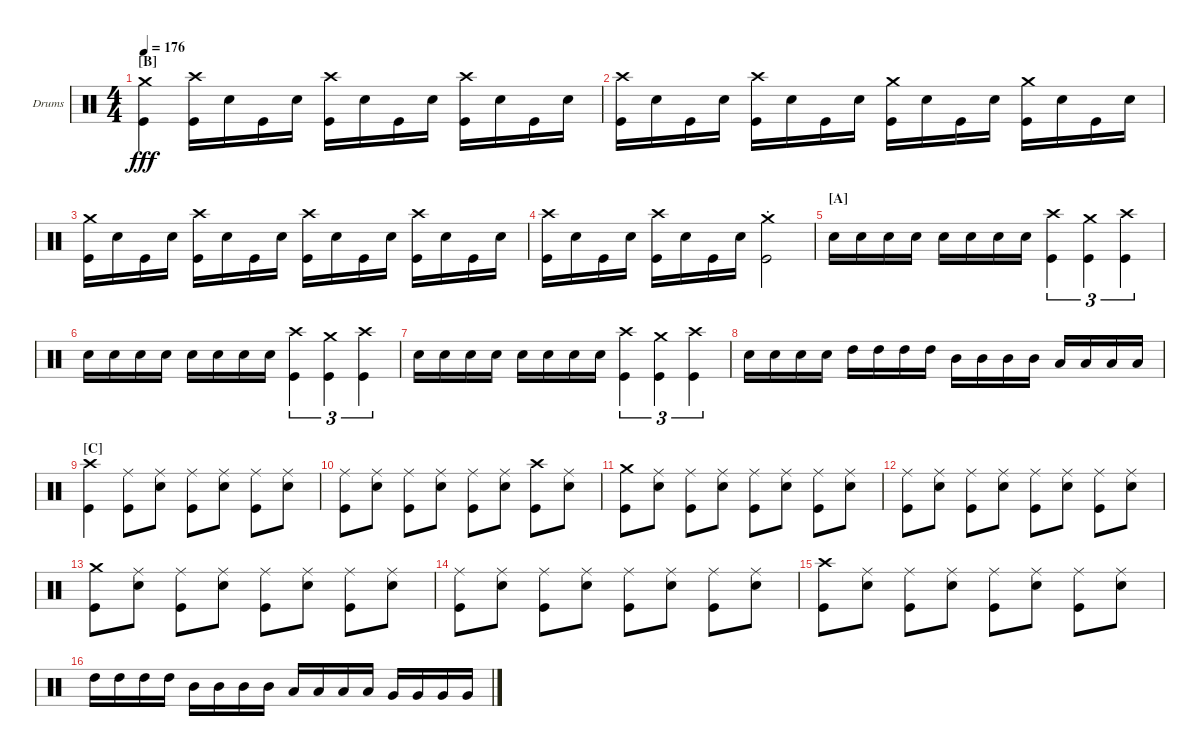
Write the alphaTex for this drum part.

\defaultSystemsLayout 4
\bracketExtendMode groupsimilarinstruments
\firstSystemTrackNameOrientation horizontal
\otherSystemsTrackNameOrientation horizontal
\track ("Drums" "Drums") {instrument percussion}
\staff {score}
\articulation defaults
\ts (4 4)
\section ("B" "")
\tempo 176
\clef neutral
\ks c
("Kick (hit)" "Crash medium (hit)").4{dy fff} ("Kick (hit)" "Crash high (hit)").16 "Snare (hit) 2".16 "Kick (hit)".16 "Snare (hit) 2".16 ("Kick (hit)" "Crash high (hit)").16 "Snare (hit) 2".16 "Kick (hit)".16 "Snare (hit) 2".16 ("Kick (hit)" "Crash high (hit)").16 "Snare (hit) 2".16 "Kick (hit)".16 "Snare (hit) 2".16 |
("Kick (hit)" "Crash high (hit)").16 "Snare (hit) 2".16 "Kick (hit)".16 "Snare (hit) 2".16 ("Kick (hit)" "Crash high (hit)").16 "Snare (hit) 2".16 "Kick (hit)".16 "Snare (hit) 2".16 ("Kick (hit)" "Crash medium (hit)").16 "Snare (hit) 2".16 "Kick (hit)".16 "Snare (hit) 2".16 ("Kick (hit)" "Crash medium (hit)").16 "Snare (hit) 2".16 "Kick (hit)".16 "Snare (hit) 2".16 |
("Kick (hit)" "Crash medium (hit)").16 "Snare (hit) 2".16 "Kick (hit)".16 "Snare (hit) 2".16 ("Kick (hit)" "Crash high (hit)").16 "Snare (hit) 2".16 "Kick (hit)".16 "Snare (hit) 2".16 ("Kick (hit)" "Crash high (hit)").16 "Snare (hit) 2".16 "Kick (hit)".16 "Snare (hit) 2".16 ("Kick (hit)" "Crash high (hit)").16 "Snare (hit) 2".16 "Kick (hit)".16 "Snare (hit) 2".16 |
("Kick (hit)" "Crash high (hit)").16 "Snare (hit) 2".16 "Kick (hit)".16 "Snare (hit) 2".16 ("Kick (hit)" "Crash high (hit)").16 "Snare (hit) 2".16 "Kick (hit)".16 "Snare (hit) 2".16 ("Kick (hit)"{st} "Crash medium (hit)"{st}).2 |
\section ("A" "")
"Snare (hit) 2".16 "Snare (hit) 2".16 "Snare (hit) 2".16 "Snare (hit) 2".16 "Snare (hit) 2".16 "Snare (hit) 2".16 "Snare (hit) 2".16 "Snare (hit) 2".16 ("Kick (hit)" "Crash high (hit)").4{tu (3 2)} ("Kick (hit)" "Crash medium (hit)").4{tu (3 2)} ("Kick (hit)" "Crash high (hit)").4{tu (3 2)} |
"Snare (hit) 2".16 "Snare (hit) 2".16 "Snare (hit) 2".16 "Snare (hit) 2".16 "Snare (hit) 2".16 "Snare (hit) 2".16 "Snare (hit) 2".16 "Snare (hit) 2".16 ("Kick (hit)" "Crash high (hit)").4{tu (3 2)} ("Kick (hit)" "Crash medium (hit)").4{tu (3 2)} ("Kick (hit)" "Crash high (hit)").4{tu (3 2)} |
"Snare (hit) 2".16 "Snare (hit) 2".16 "Snare (hit) 2".16 "Snare (hit) 2".16 "Snare (hit) 2".16 "Snare (hit) 2".16 "Snare (hit) 2".16 "Snare (hit) 2".16 ("Kick (hit)" "Crash high (hit)").4{tu (3 2)} ("Kick (hit)" "Crash medium (hit)").4{tu (3 2)} ("Kick (hit)" "Crash high (hit)").4{tu (3 2)} |
"Snare (hit) 2".16 "Snare (hit) 2".16 "Snare (hit) 2".16 "Snare (hit) 2".16 "High Tom (hit)".16 "High Tom (hit)".16 "High Tom (hit)".16 "High Tom (hit)".16 "Mid Tom (hit)".16 "Mid Tom (hit)".16 "Mid Tom (hit)".16 "Mid Tom (hit)".16 "Low Tom (hit)".16 "Low Tom (hit)".16 "Low Tom (hit)".16 "Low Tom (hit)".16 |
\section ("C" "")
("Kick (hit)" "Crash high (hit)").4 ("Kick (hit)" "Ride (middle)").8 ("Snare (hit) 2" "Ride (middle)").8 ("Kick (hit)" "Ride (middle)").8 ("Snare (hit) 2" "Ride (middle)").8 ("Kick (hit)" "Ride (middle)").8 ("Snare (hit) 2" "Ride (middle)").8 |
("Kick (hit)" "Ride (middle)").8 ("Snare (hit) 2" "Ride (middle)").8 ("Kick (hit)" "Ride (middle)").8 ("Snare (hit) 2" "Ride (middle)").8 ("Kick (hit)" "Ride (middle)").8 ("Snare (hit) 2" "Ride (middle)").8 ("Kick (hit)" "Crash high (hit)").8 ("Snare (hit) 2" "Ride (middle)").8 |
("Kick (hit)" "Crash medium (hit)").8 ("Snare (hit) 2" "Ride (middle)").8 ("Kick (hit)" "Ride (middle)").8 ("Snare (hit) 2" "Ride (middle)").8 ("Kick (hit)" "Ride (middle)").8 ("Snare (hit) 2" "Ride (middle)").8 ("Kick (hit)" "Ride (middle)").8 ("Snare (hit) 2" "Ride (middle)").8 |
("Kick (hit)" "Ride (middle)").8 ("Snare (hit) 2" "Ride (middle)").8 ("Kick (hit)" "Ride (middle)").8 ("Snare (hit) 2" "Ride (middle)").8 ("Kick (hit)" "Ride (middle)").8 ("Snare (hit) 2" "Ride (middle)").8 ("Kick (hit)" "Ride (middle)").8 ("Snare (hit) 2" "Ride (middle)").8 |
("Kick (hit)" "Crash medium (hit)").8 ("Snare (hit) 2" "Ride (middle)").8 ("Kick (hit)" "Ride (middle)").8 ("Snare (hit) 2" "Ride (middle)").8 ("Kick (hit)" "Ride (middle)").8 ("Snare (hit) 2" "Ride (middle)").8 ("Kick (hit)" "Ride (middle)").8 ("Snare (hit) 2" "Ride (middle)").8 |
("Kick (hit)" "Ride (middle)").8 ("Snare (hit) 2" "Ride (middle)").8 ("Kick (hit)" "Ride (middle)").8 ("Snare (hit) 2" "Ride (middle)").8 ("Kick (hit)" "Ride (middle)").8 ("Snare (hit) 2" "Ride (middle)").8 ("Kick (hit)" "Ride (middle)").8 ("Snare (hit) 2" "Ride (middle)").8 |
("Kick (hit)" "Crash high (hit)").8 ("Snare (hit) 2" "Ride (middle)").8 ("Kick (hit)" "Ride (middle)").8 ("Snare (hit) 2" "Ride (middle)").8 ("Kick (hit)" "Ride (middle)").8 ("Snare (hit) 2" "Ride (middle)").8 ("Kick (hit)" "Ride (middle)").8 ("Snare (hit) 2" "Ride (middle)").8 |
"High Tom (hit)".16 "High Tom (hit)".16 "High Tom (hit)".16 "High Tom (hit)".16 "Mid Tom (hit)".16 "Mid Tom (hit)".16 "Mid Tom (hit)".16 "Mid Tom (hit)".16 "Low Tom (hit)".16 "Low Tom (hit)".16 "Low Tom (hit)".16 "Low Tom (hit)".16 "Very Low Tom (hit)".16 "Very Low Tom (hit)".16 "Very Low Tom (hit)".16 "Very Low Tom (hit)".16
